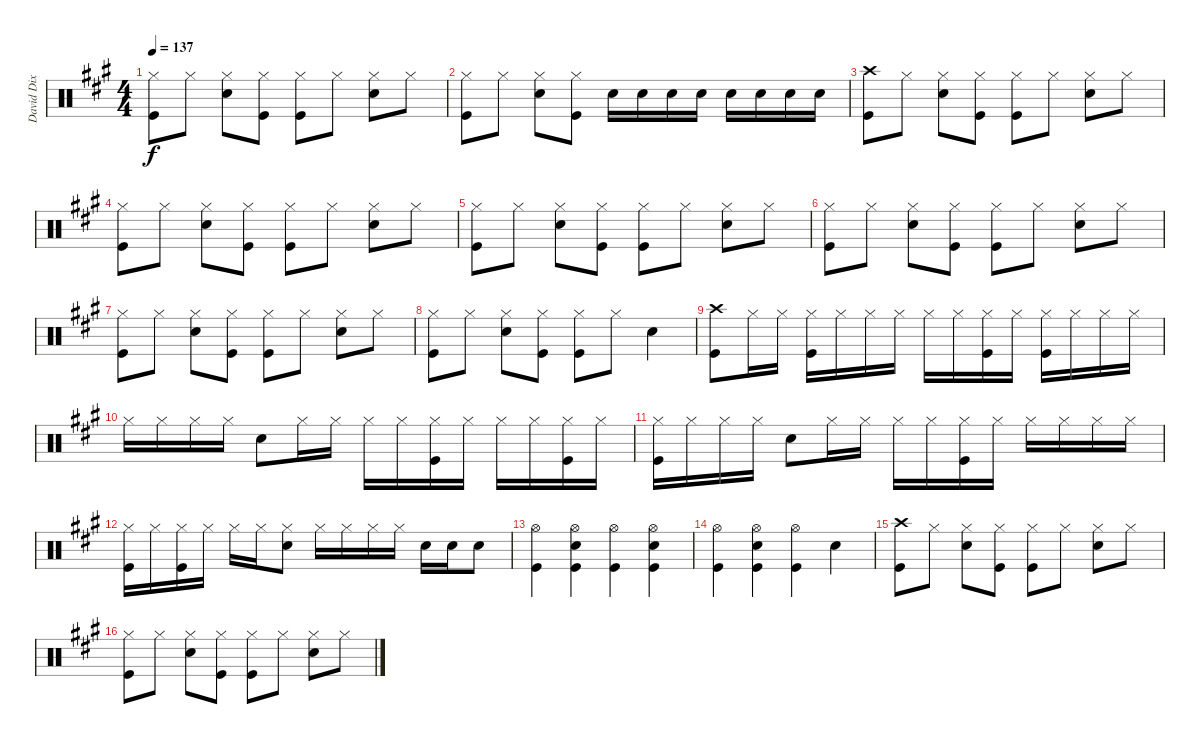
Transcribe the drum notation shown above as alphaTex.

\track ("David Dix Drums" "David Dix ") {instrument percussion}
\staff {score}
\articulation defaults
\ts (4 4)
\tempo 137
\clef neutral
\ks a
("Hi-Hat (closed)" "Kick (hit)").8{dy f} "Hi-Hat (closed)".8 ("Hi-Hat (closed)" "Snare (hit) 2").8 ("Hi-Hat (closed)" "Kick (hit)").8 ("Hi-Hat (closed)" "Kick (hit)").8 "Hi-Hat (closed)".8 ("Hi-Hat (closed)" "Snare (hit) 2").8 "Hi-Hat (closed)".8 |
("Hi-Hat (closed)" "Kick (hit)").8 "Hi-Hat (closed)".8 ("Hi-Hat (closed)" "Snare (hit) 2").8 ("Hi-Hat (closed)" "Kick (hit)").8 "Snare (hit) 2".16 "Snare (hit) 2".16 "Snare (hit) 2".16 "Snare (hit) 2".16 "Snare (hit) 2".16 "Snare (hit) 2".16 "Snare (hit) 2".16 "Snare (hit) 2".16 |
("Crash high (hit)" "Kick (hit)").8 "Hi-Hat (closed)".8 ("Hi-Hat (closed)" "Snare (hit) 2").8 ("Hi-Hat (closed)" "Kick (hit)").8 ("Hi-Hat (closed)" "Kick (hit)").8 "Hi-Hat (closed)".8 ("Hi-Hat (closed)" "Snare (hit) 2").8 "Hi-Hat (closed)".8 |
("Hi-Hat (closed)" "Kick (hit)").8 "Hi-Hat (closed)".8 ("Hi-Hat (closed)" "Snare (hit) 2").8 ("Hi-Hat (closed)" "Kick (hit)").8 ("Hi-Hat (closed)" "Kick (hit)").8 "Hi-Hat (closed)".8 ("Hi-Hat (closed)" "Snare (hit) 2").8 "Hi-Hat (closed)".8 |
("Hi-Hat (closed)" "Kick (hit)").8 "Hi-Hat (closed)".8 ("Hi-Hat (closed)" "Snare (hit) 2").8 ("Hi-Hat (closed)" "Kick (hit)").8 ("Hi-Hat (closed)" "Kick (hit)").8 "Hi-Hat (closed)".8 ("Hi-Hat (closed)" "Snare (hit) 2").8 "Hi-Hat (closed)".8 |
("Hi-Hat (closed)" "Kick (hit)").8 "Hi-Hat (closed)".8 ("Hi-Hat (closed)" "Snare (hit) 2").8 ("Hi-Hat (closed)" "Kick (hit)").8 ("Hi-Hat (closed)" "Kick (hit)").8 "Hi-Hat (closed)".8 ("Hi-Hat (closed)" "Snare (hit) 2").8 "Hi-Hat (closed)".8 |
("Hi-Hat (closed)" "Kick (hit)").8 "Hi-Hat (closed)".8 ("Hi-Hat (closed)" "Snare (hit) 2").8 ("Hi-Hat (closed)" "Kick (hit)").8 ("Hi-Hat (closed)" "Kick (hit)").8 "Hi-Hat (closed)".8 ("Hi-Hat (closed)" "Snare (hit) 2").8 "Hi-Hat (closed)".8 |
("Hi-Hat (closed)" "Kick (hit)").8 "Hi-Hat (closed)".8 ("Hi-Hat (closed)" "Snare (hit) 2").8 ("Hi-Hat (closed)" "Kick (hit)").8 ("Hi-Hat (closed)" "Kick (hit)").8 "Hi-Hat (closed)".8 "Snare (hit) 2".4 |
("Crash high (hit)" "Kick (hit)").8 "Hi-Hat (closed)".16 "Hi-Hat (closed)".16 ("Hi-Hat (closed)" "Kick (hit)").16 "Hi-Hat (closed)".16 "Hi-Hat (closed)".16 "Hi-Hat (closed)".16 "Hi-Hat (closed)".16 "Hi-Hat (closed)".16 ("Hi-Hat (closed)" "Kick (hit)").16 "Hi-Hat (closed)".16 ("Hi-Hat (closed)" "Kick (hit)").16 "Hi-Hat (closed)".16 "Hi-Hat (closed)".16 "Hi-Hat (closed)".16 |
"Hi-Hat (closed)".16 "Hi-Hat (closed)".16 "Hi-Hat (closed)".16 "Hi-Hat (closed)".16 "Snare (hit) 2".8 "Hi-Hat (closed)".16 "Hi-Hat (closed)".16 "Hi-Hat (closed)".16 "Hi-Hat (closed)".16 ("Hi-Hat (closed)" "Kick (hit)").16 "Hi-Hat (closed)".16 "Hi-Hat (closed)".16 "Hi-Hat (closed)".16 ("Hi-Hat (closed)" "Kick (hit)").16 "Hi-Hat (closed)".16 |
("Hi-Hat (closed)" "Kick (hit)").16 "Hi-Hat (closed)".16 "Hi-Hat (closed)".16 "Hi-Hat (closed)".16 "Snare (hit) 2".8 "Hi-Hat (closed)".16 "Hi-Hat (closed)".16 "Hi-Hat (closed)".16 "Hi-Hat (closed)".16 ("Hi-Hat (closed)" "Kick (hit)").16 "Hi-Hat (closed)".16 "Hi-Hat (closed)".16 "Hi-Hat (closed)".16 "Hi-Hat (closed)".16 "Hi-Hat (closed)".16 |
("Hi-Hat (closed)" "Kick (hit)").16 "Hi-Hat (closed)".16 ("Hi-Hat (closed)" "Kick (hit)").16 "Hi-Hat (closed)".16 "Hi-Hat (closed)".16 "Hi-Hat (closed)".16 ("Hi-Hat (closed)" "Snare (hit) 2").8 "Hi-Hat (closed)".16 "Hi-Hat (closed)".16 "Hi-Hat (closed)".16 "Hi-Hat (closed)".16 "Snare (hit) 2".16 "Snare (hit) 2".16 "Snare (hit) 2".8 |
("Hi-Hat (open)" "Kick (hit)").4 ("Hi-Hat (open)" "Snare (hit) 2" "Kick (hit)").4 ("Hi-Hat (open)" "Kick (hit)").4 ("Hi-Hat (open)" "Snare (hit) 2" "Kick (hit)").4 |
("Hi-Hat (open)" "Kick (hit)").4 ("Hi-Hat (open)" "Snare (hit) 2" "Kick (hit)").4 ("Hi-Hat (open)" "Kick (hit)").4 "Snare (hit) 2".4 |
("Crash high (hit)" "Kick (hit)").8 "Hi-Hat (closed)".8 ("Hi-Hat (closed)" "Snare (hit) 2").8 ("Hi-Hat (closed)" "Kick (hit)").8 ("Hi-Hat (closed)" "Kick (hit)").8 "Hi-Hat (closed)".8 ("Hi-Hat (closed)" "Snare (hit) 2").8 "Hi-Hat (closed)".8 |
("Hi-Hat (closed)" "Kick (hit)").8 "Hi-Hat (closed)".8 ("Hi-Hat (closed)" "Snare (hit) 2").8 ("Hi-Hat (closed)" "Kick (hit)").8 ("Hi-Hat (closed)" "Kick (hit)").8 "Hi-Hat (closed)".8 ("Hi-Hat (closed)" "Snare (hit) 2").8 "Hi-Hat (closed)".8
